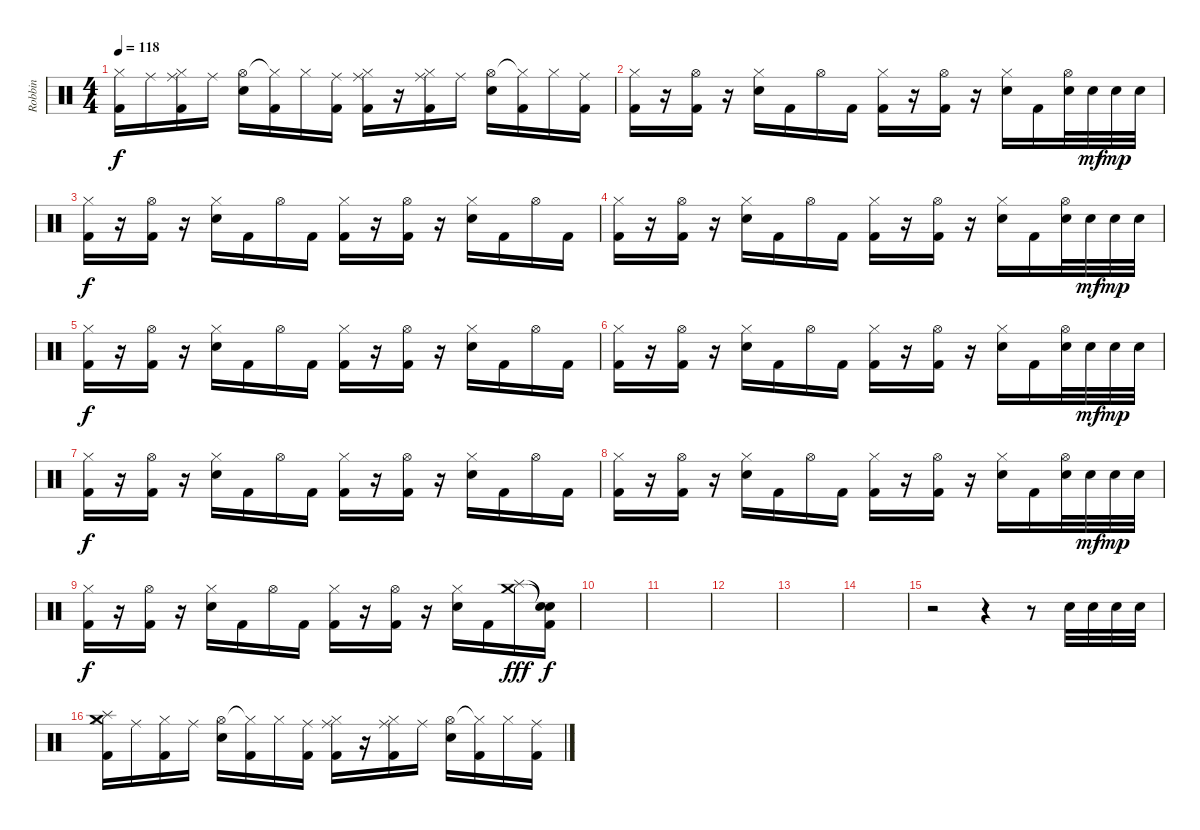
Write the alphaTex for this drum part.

\track ("Robbin" "Robbin") {instrument percussion}
\staff {score}
\articulation defaults
\ts (4 4)
\tempo 118
\clef neutral
\ks c
("Hi-Hat (closed)" "Kick (hit) 2").16{dy f} "Ride (middle)".16 ("Hi-Hat (closed)" "Ride (middle)" "Kick (hit) 2").16 "Ride (middle)".16 ("Hi-Hat (open)" "Snare (hit) 2").16 ("Hi-Hat (closed)"{t} "Kick (hit) 2").16 "Hi-Hat (closed)".16 ("Ride (middle)" "Kick (hit) 2").16 ("Hi-Hat (closed)" "Ride (middle)" "Kick (hit) 2").16 r.16 ("Hi-Hat (closed)" "Ride (middle)" "Kick (hit) 2").16 "Ride (middle)".16 ("Hi-Hat (open)" "Snare (hit) 2").16 ("Hi-Hat (closed)"{t} "Kick (hit) 2").16 "Hi-Hat (closed)".16 ("Ride (middle)" "Kick (hit) 2").16 |
("Hi-Hat (closed)" "Kick (hit) 2").16 r.16 ("Hi-Hat (open)" "Kick (hit) 2").16 r.16 ("Hi-Hat (closed)" "Snare (hit) 2").16 "Kick (hit) 2".16 "Hi-Hat (open)".16 "Kick (hit) 2".16 ("Hi-Hat (closed)" "Kick (hit) 2").16 r.16 ("Hi-Hat (open)" "Kick (hit) 2").16 r.16 ("Hi-Hat (closed)" "Snare (hit) 2").16 "Kick (hit) 2".16 ("Hi-Hat (open)" "Electric Snare (hit)").32 "Electric Snare (hit)".32{dy mf} "Electric Snare (hit)".32{dy mp} "Electric Snare (hit)".32 |
("Hi-Hat (closed)" "Kick (hit) 2").16{dy f} r.16 ("Hi-Hat (open)" "Kick (hit) 2").16 r.16 ("Hi-Hat (closed)" "Snare (hit) 2").16 "Kick (hit) 2".16 "Hi-Hat (open)".16 "Kick (hit) 2".16 ("Hi-Hat (closed)" "Kick (hit) 2").16 r.16 ("Hi-Hat (open)" "Kick (hit) 2").16 r.16 ("Hi-Hat (closed)" "Snare (hit) 2").16 "Kick (hit) 2".16 "Hi-Hat (open)".16 "Kick (hit) 2".16 |
("Hi-Hat (closed)" "Kick (hit) 2").16 r.16 ("Hi-Hat (open)" "Kick (hit) 2").16 r.16 ("Hi-Hat (closed)" "Snare (hit) 2").16 "Kick (hit) 2".16 "Hi-Hat (open)".16 "Kick (hit) 2".16 ("Hi-Hat (closed)" "Kick (hit) 2").16 r.16 ("Hi-Hat (open)" "Kick (hit) 2").16 r.16 ("Hi-Hat (closed)" "Snare (hit) 2").16 "Kick (hit) 2".16 ("Hi-Hat (open)" "Electric Snare (hit)").32 "Electric Snare (hit)".32{dy mf} "Electric Snare (hit)".32{dy mp} "Electric Snare (hit)".32 |
("Hi-Hat (closed)" "Kick (hit) 2").16{dy f} r.16 ("Hi-Hat (open)" "Kick (hit) 2").16 r.16 ("Hi-Hat (closed)" "Snare (hit) 2").16 "Kick (hit) 2".16 "Hi-Hat (open)".16 "Kick (hit) 2".16 ("Hi-Hat (closed)" "Kick (hit) 2").16 r.16 ("Hi-Hat (open)" "Kick (hit) 2").16 r.16 ("Hi-Hat (closed)" "Snare (hit) 2").16 "Kick (hit) 2".16 "Hi-Hat (open)".16 "Kick (hit) 2".16 |
("Hi-Hat (closed)" "Kick (hit) 2").16 r.16 ("Hi-Hat (open)" "Kick (hit) 2").16 r.16 ("Hi-Hat (closed)" "Snare (hit) 2").16 "Kick (hit) 2".16 "Hi-Hat (open)".16 "Kick (hit) 2".16 ("Hi-Hat (closed)" "Kick (hit) 2").16 r.16 ("Hi-Hat (open)" "Kick (hit) 2").16 r.16 ("Hi-Hat (closed)" "Snare (hit) 2").16 "Kick (hit) 2".16 ("Hi-Hat (open)" "Electric Snare (hit)").32 "Electric Snare (hit)".32{dy mf} "Electric Snare (hit)".32{dy mp} "Electric Snare (hit)".32 |
("Hi-Hat (closed)" "Kick (hit) 2").16{dy f} r.16 ("Hi-Hat (open)" "Kick (hit) 2").16 r.16 ("Hi-Hat (closed)" "Snare (hit) 2").16 "Kick (hit) 2".16 "Hi-Hat (open)".16 "Kick (hit) 2".16 ("Hi-Hat (closed)" "Kick (hit) 2").16 r.16 ("Hi-Hat (open)" "Kick (hit) 2").16 r.16 ("Hi-Hat (closed)" "Snare (hit) 2").16 "Kick (hit) 2".16 "Hi-Hat (open)".16 "Kick (hit) 2".16 |
("Hi-Hat (closed)" "Kick (hit) 2").16 r.16 ("Hi-Hat (open)" "Kick (hit) 2").16 r.16 ("Hi-Hat (closed)" "Snare (hit) 2").16 "Kick (hit) 2".16 "Hi-Hat (open)".16 "Kick (hit) 2".16 ("Hi-Hat (closed)" "Kick (hit) 2").16 r.16 ("Hi-Hat (open)" "Kick (hit) 2").16 r.16 ("Hi-Hat (closed)" "Snare (hit) 2").16 "Kick (hit) 2".16 ("Hi-Hat (open)" "Electric Snare (hit)").32 "Electric Snare (hit)".32{dy mf} "Electric Snare (hit)".32{dy mp} "Electric Snare (hit)".32 |
("Hi-Hat (closed)" "Kick (hit) 2").16{dy f} r.16 ("Hi-Hat (open)" "Kick (hit) 2").16 r.16 ("Hi-Hat (closed)" "Snare (hit) 2").16 "Kick (hit) 2".16 "Hi-Hat (open)".16 "Kick (hit) 2".16 ("Hi-Hat (closed)" "Kick (hit) 2").16 r.16 ("Hi-Hat (open)" "Kick (hit) 2").16 r.16 ("Hi-Hat (closed)" "Snare (hit) 2").16 "Kick (hit) 2".16 ("Crash medium (hit)" "Splash (hit)").16{dy fff} ("Snare (hit)"{t} "Snare (hit)"{t} "Kick (hit) 2").16{dy f} |
|
|
|
|
|
r.2 r.4 r.8 "Electric Snare (hit)".32 "Electric Snare (hit)".32 "Electric Snare (hit)".32 "Electric Snare (hit)".32 |
("Hi-Hat (closed)" "Crash medium (hit)" "Splash (hit)" "Kick (hit) 2").16 "Ride (middle)".16 ("Hi-Hat (closed)" "Kick (hit) 2").16 "Ride (middle)".16 ("Hi-Hat (open)" "Snare (hit) 2").16 ("Hi-Hat (closed)"{t} "Kick (hit) 2").16 "Hi-Hat (closed)".16 ("Ride (middle)" "Kick (hit) 2").16 ("Hi-Hat (closed)" "Ride (middle)" "Kick (hit) 2").16 r.16 ("Hi-Hat (closed)" "Ride (middle)" "Kick (hit) 2").16 "Ride (middle)".16 ("Hi-Hat (open)" "Snare (hit) 2").16 ("Hi-Hat (closed)"{t} "Kick (hit) 2").16 "Hi-Hat (closed)".16 ("Ride (middle)" "Kick (hit) 2").16
